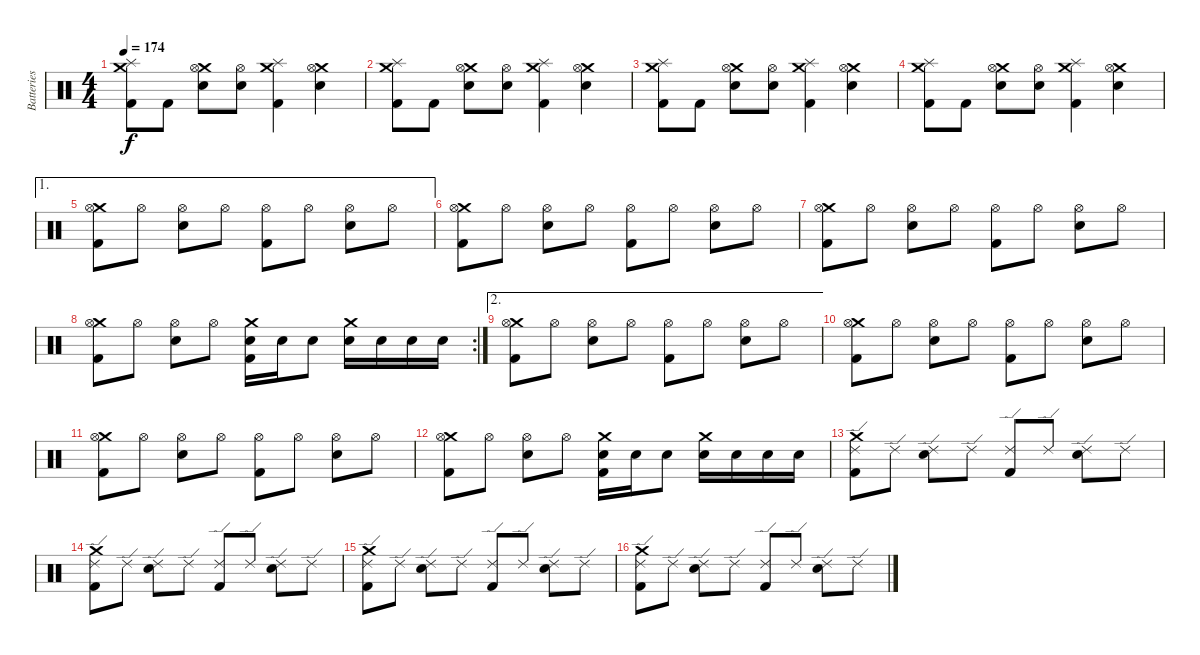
\track ("Batteries" "Batteries") {instrument percussion}
\staff {score}
\articulation defaults
\ts (4 4)
\tempo 174
\clef neutral
\ks c
("Splash (hit)" "Crash medium (hit)" "Kick (hit) 2").8{dy f} "Kick (hit) 2".8 ("Crash medium (hit)" "Hi-Hat (open)" "Electric Snare (hit)").8 ("Hi-Hat (open)" "Electric Snare (hit)").8 ("Crash medium (hit)" "Splash (hit)" "Kick (hit) 2").4 ("Crash medium (hit)" "Hi-Hat (open)" "Electric Snare (hit)").4 |
("Splash (hit)" "Crash medium (hit)" "Kick (hit) 2").8 "Kick (hit) 2".8 ("Crash medium (hit)" "Hi-Hat (open)" "Electric Snare (hit)").8 ("Hi-Hat (open)" "Electric Snare (hit)").8 ("Crash medium (hit)" "Splash (hit)" "Kick (hit) 2").4 ("Crash medium (hit)" "Hi-Hat (open)" "Electric Snare (hit)").4 |
("Splash (hit)" "Crash medium (hit)" "Kick (hit) 2").8 "Kick (hit) 2".8 ("Crash medium (hit)" "Hi-Hat (open)" "Electric Snare (hit)").8 ("Hi-Hat (open)" "Electric Snare (hit)").8 ("Crash medium (hit)" "Splash (hit)" "Kick (hit) 2").4 ("Crash medium (hit)" "Hi-Hat (open)" "Electric Snare (hit)").4 |
("Splash (hit)" "Crash medium (hit)" "Kick (hit) 2").8 "Kick (hit) 2".8 ("Crash medium (hit)" "Hi-Hat (open)" "Electric Snare (hit)").8 ("Hi-Hat (open)" "Electric Snare (hit)").8 ("Crash medium (hit)" "Splash (hit)" "Kick (hit) 2").4 ("Crash medium (hit)" "Hi-Hat (open)" "Electric Snare (hit)").4 |
\ae 1
("Crash medium (hit)" "Hi-Hat (open)" "Kick (hit) 2").8 "Hi-Hat (open)".8 ("Hi-Hat (open)" "Electric Snare (hit)").8 "Hi-Hat (open)".8 ("Hi-Hat (open)" "Kick (hit) 2").8 "Hi-Hat (open)".8 ("Hi-Hat (open)" "Electric Snare (hit)").8 "Hi-Hat (open)".8 |
("Crash medium (hit)" "Hi-Hat (open)" "Kick (hit) 2").8 "Hi-Hat (open)".8 ("Hi-Hat (open)" "Electric Snare (hit)").8 "Hi-Hat (open)".8 ("Hi-Hat (open)" "Kick (hit) 2").8 "Hi-Hat (open)".8 ("Hi-Hat (open)" "Electric Snare (hit)").8 "Hi-Hat (open)".8 |
("Crash medium (hit)" "Hi-Hat (open)" "Kick (hit) 2").8 "Hi-Hat (open)".8 ("Hi-Hat (open)" "Electric Snare (hit)").8 "Hi-Hat (open)".8 ("Hi-Hat (open)" "Kick (hit) 2").8 "Hi-Hat (open)".8 ("Hi-Hat (open)" "Electric Snare (hit)").8 "Hi-Hat (open)".8 |
\rc 2
("Crash medium (hit)" "Hi-Hat (open)" "Kick (hit) 2").8 "Hi-Hat (open)".8 ("Hi-Hat (open)" "Electric Snare (hit)").8 "Hi-Hat (open)".8 ("Crash medium (hit)" "Electric Snare (hit)" "Kick (hit) 2").16 "Electric Snare (hit)".16 "Electric Snare (hit)".8 ("Crash medium (hit)" "Electric Snare (hit)").16 "Electric Snare (hit)".16 "Electric Snare (hit)".16 "Electric Snare (hit)".16 |
\ae 2
("Crash medium (hit)" "Hi-Hat (open)" "Kick (hit) 2").8 "Hi-Hat (open)".8 ("Hi-Hat (open)" "Electric Snare (hit)").8 "Hi-Hat (open)".8 ("Hi-Hat (open)" "Kick (hit) 2").8 "Hi-Hat (open)".8 ("Hi-Hat (open)" "Electric Snare (hit)").8 "Hi-Hat (open)".8 |
("Crash medium (hit)" "Hi-Hat (open)" "Kick (hit) 2").8 "Hi-Hat (open)".8 ("Hi-Hat (open)" "Electric Snare (hit)").8 "Hi-Hat (open)".8 ("Hi-Hat (open)" "Kick (hit) 2").8 "Hi-Hat (open)".8 ("Hi-Hat (open)" "Electric Snare (hit)").8 "Hi-Hat (open)".8 |
("Crash medium (hit)" "Hi-Hat (open)" "Kick (hit) 2").8 "Hi-Hat (open)".8 ("Hi-Hat (open)" "Electric Snare (hit)").8 "Hi-Hat (open)".8 ("Hi-Hat (open)" "Kick (hit) 2").8 "Hi-Hat (open)".8 ("Hi-Hat (open)" "Electric Snare (hit)").8 "Hi-Hat (open)".8 |
("Crash medium (hit)" "Hi-Hat (open)" "Kick (hit) 2").8 "Hi-Hat (open)".8 ("Hi-Hat (open)" "Electric Snare (hit)").8 "Hi-Hat (open)".8 ("Crash medium (hit)" "Electric Snare (hit)" "Kick (hit) 2").16 "Electric Snare (hit)".16 "Electric Snare (hit)".8 ("Crash medium (hit)" "Electric Snare (hit)").16 "Electric Snare (hit)".16 "Electric Snare (hit)".16 "Electric Snare (hit)".16 |
("Crash medium (hit)" "Ride (edge) 2" "Kick (hit) 2").8 "Ride (edge) 2".8 ("Ride (edge) 2" "Electric Snare (hit)").8 "Ride (edge) 2".8 ("Ride (edge) 2" "Kick (hit) 2").8 "Ride (edge) 2".8 ("Ride (edge) 2" "Electric Snare (hit)").8 "Ride (edge) 2".8 |
("Crash medium (hit)" "Ride (edge) 2" "Kick (hit) 2").8 "Ride (edge) 2".8 ("Ride (edge) 2" "Electric Snare (hit)").8 "Ride (edge) 2".8 ("Ride (edge) 2" "Kick (hit) 2").8 "Ride (edge) 2".8 ("Ride (edge) 2" "Electric Snare (hit)").8 "Ride (edge) 2".8 |
("Crash medium (hit)" "Ride (edge) 2" "Kick (hit) 2").8 "Ride (edge) 2".8 ("Ride (edge) 2" "Electric Snare (hit)").8 "Ride (edge) 2".8 ("Ride (edge) 2" "Kick (hit) 2").8 "Ride (edge) 2".8 ("Ride (edge) 2" "Electric Snare (hit)").8 "Ride (edge) 2".8 |
("Crash medium (hit)" "Ride (edge) 2" "Kick (hit) 2").8 "Ride (edge) 2".8 ("Ride (edge) 2" "Electric Snare (hit)").8 "Ride (edge) 2".8 ("Ride (edge) 2" "Kick (hit) 2").8 "Ride (edge) 2".8 ("Ride (edge) 2" "Electric Snare (hit)").8 "Ride (edge) 2".8
